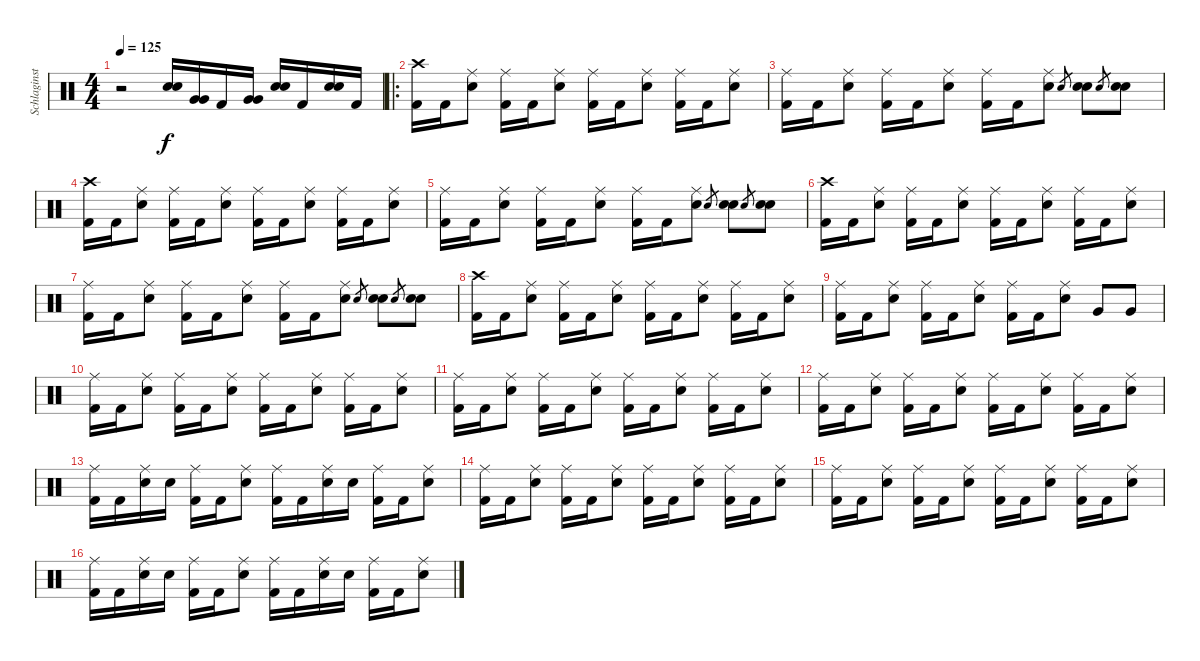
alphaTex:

\track ("Schlaginstrumente - Auswahl" "Schlaginst") {instrument percussion}
\staff {score}
\articulation defaults
\ts (4 4)
\tempo 125
\clef neutral
\ks c
r.2{dy f} ("Snare (hit) 2" "Snare (hit) 2").16 ("Very Low Tom (hit)" "Very Low Tom (hit)").16 "Kick (hit) 2".16 ("Very Low Tom (hit)" "Very Low Tom (hit)").16 ("Snare (hit) 2" "Snare (hit) 2").16 "Kick (hit) 2".16 ("Snare (hit) 2" "Snare (hit) 2").16 "Kick (hit) 2".16 |
\ro
("Crash high (hit)" "Kick (hit) 2").16 "Kick (hit) 2".16 ("Ride (middle)" "Snare (hit) 2").8 ("Ride (middle)" "Kick (hit) 2").16 "Kick (hit) 2".16 ("Ride (middle)" "Snare (hit) 2").8 ("Ride (middle)" "Kick (hit) 2").16 "Kick (hit) 2".16 ("Ride (middle)" "Snare (hit) 2").8 ("Ride (middle)" "Kick (hit) 2").16 "Kick (hit) 2".16 ("Ride (middle)" "Snare (hit) 2").8 |
("Ride (middle)" "Kick (hit) 2").16 "Kick (hit) 2".16 ("Ride (middle)" "Snare (hit) 2").8 ("Ride (middle)" "Kick (hit) 2").16 "Kick (hit) 2".16 ("Ride (middle)" "Snare (hit) 2").8 ("Ride (middle)" "Kick (hit) 2").16 "Kick (hit) 2".16 ("Ride (middle)" "Snare (hit) 2").8 "Snare (hit) 2".8{gr} ("Snare (hit) 2" "Snare (hit) 2").8 "Snare (hit) 2".8{gr} ("Snare (hit) 2" "Snare (hit) 2").8 |
("Crash high (hit)" "Kick (hit) 2").16 "Kick (hit) 2".16 ("Ride (middle)" "Snare (hit) 2").8 ("Ride (middle)" "Kick (hit) 2").16 "Kick (hit) 2".16 ("Ride (middle)" "Snare (hit) 2").8 ("Ride (middle)" "Kick (hit) 2").16 "Kick (hit) 2".16 ("Ride (middle)" "Snare (hit) 2").8 ("Ride (middle)" "Kick (hit) 2").16 "Kick (hit) 2".16 ("Ride (middle)" "Snare (hit) 2").8 |
("Ride (middle)" "Kick (hit) 2").16 "Kick (hit) 2".16 ("Ride (middle)" "Snare (hit) 2").8 ("Ride (middle)" "Kick (hit) 2").16 "Kick (hit) 2".16 ("Ride (middle)" "Snare (hit) 2").8 ("Ride (middle)" "Kick (hit) 2").16 "Kick (hit) 2".16 ("Ride (middle)" "Snare (hit) 2").8 "Snare (hit) 2".8{gr} ("Snare (hit) 2" "Snare (hit) 2").8 "Snare (hit) 2".8{gr} ("Snare (hit) 2" "Snare (hit) 2").8 |
("Crash high (hit)" "Kick (hit) 2").16 "Kick (hit) 2".16 ("Ride (middle)" "Snare (hit) 2").8 ("Ride (middle)" "Kick (hit) 2").16 "Kick (hit) 2".16 ("Ride (middle)" "Snare (hit) 2").8 ("Ride (middle)" "Kick (hit) 2").16 "Kick (hit) 2".16 ("Ride (middle)" "Snare (hit) 2").8 ("Ride (middle)" "Kick (hit) 2").16 "Kick (hit) 2".16 ("Ride (middle)" "Snare (hit) 2").8 |
("Ride (middle)" "Kick (hit) 2").16 "Kick (hit) 2".16 ("Ride (middle)" "Snare (hit) 2").8 ("Ride (middle)" "Kick (hit) 2").16 "Kick (hit) 2".16 ("Ride (middle)" "Snare (hit) 2").8 ("Ride (middle)" "Kick (hit) 2").16 "Kick (hit) 2".16 ("Ride (middle)" "Snare (hit) 2").8 "Snare (hit) 2".8{gr} ("Snare (hit) 2" "Snare (hit) 2").8 "Snare (hit) 2".8{gr} ("Snare (hit) 2" "Snare (hit) 2").8 |
("Crash high (hit)" "Kick (hit) 2").16 "Kick (hit) 2".16 ("Ride (middle)" "Snare (hit) 2").8 ("Ride (middle)" "Kick (hit) 2").16 "Kick (hit) 2".16 ("Ride (middle)" "Snare (hit) 2").8 ("Ride (middle)" "Kick (hit) 2").16 "Kick (hit) 2".16 ("Ride (middle)" "Snare (hit) 2").8 ("Ride (middle)" "Kick (hit) 2").16 "Kick (hit) 2".16 ("Ride (middle)" "Snare (hit) 2").8 |
("Ride (middle)" "Kick (hit) 2").16 "Kick (hit) 2".16 ("Ride (middle)" "Snare (hit) 2").8 ("Ride (middle)" "Kick (hit) 2").16 "Kick (hit) 2".16 ("Ride (middle)" "Snare (hit) 2").8 ("Ride (middle)" "Kick (hit) 2").16 "Kick (hit) 2".16 ("Ride (middle)" "Snare (hit) 2").8 "Very Low Tom (hit)".8 "Very Low Tom (hit)".8 |
("Ride (middle)" "Kick (hit) 2").16 "Kick (hit) 2".16 ("Ride (middle)" "Snare (hit) 2").8 ("Ride (middle)" "Kick (hit) 2").16 "Kick (hit) 2".16 ("Ride (middle)" "Snare (hit) 2").8 ("Ride (middle)" "Kick (hit) 2").16 "Kick (hit) 2".16 ("Ride (middle)" "Snare (hit) 2").8 ("Ride (middle)" "Kick (hit) 2").16 "Kick (hit) 2".16 ("Ride (middle)" "Snare (hit) 2").8 |
("Ride (middle)" "Kick (hit) 2").16 "Kick (hit) 2".16 ("Ride (middle)" "Snare (hit) 2").8 ("Ride (middle)" "Kick (hit) 2").16 "Kick (hit) 2".16 ("Ride (middle)" "Snare (hit) 2").8 ("Ride (middle)" "Kick (hit) 2").16 "Kick (hit) 2".16 ("Ride (middle)" "Snare (hit) 2").8 ("Ride (middle)" "Kick (hit) 2").16 "Kick (hit) 2".16 ("Ride (middle)" "Snare (hit) 2").8 |
("Ride (middle)" "Kick (hit) 2").16 "Kick (hit) 2".16 ("Ride (middle)" "Snare (hit) 2").8 ("Ride (middle)" "Kick (hit) 2").16 "Kick (hit) 2".16 ("Ride (middle)" "Snare (hit) 2").8 ("Ride (middle)" "Kick (hit) 2").16 "Kick (hit) 2".16 ("Ride (middle)" "Snare (hit) 2").8 ("Ride (middle)" "Kick (hit) 2").16 "Kick (hit) 2".16 ("Ride (middle)" "Snare (hit) 2").8 |
("Ride (middle)" "Kick (hit) 2").16 "Kick (hit) 2".16 ("Ride (middle)" "Snare (hit) 2").16 "Snare (hit) 2".16 ("Ride (middle)" "Kick (hit) 2").16 "Kick (hit) 2".16 ("Ride (middle)" "Snare (hit) 2").8 ("Ride (middle)" "Kick (hit) 2").16 "Kick (hit) 2".16 ("Ride (middle)" "Snare (hit) 2").16 "Snare (hit) 2".16 ("Ride (middle)" "Kick (hit) 2").16 "Kick (hit) 2".16 ("Ride (middle)" "Snare (hit) 2").8 |
("Ride (middle)" "Kick (hit) 2").16 "Kick (hit) 2".16 ("Ride (middle)" "Snare (hit) 2").8 ("Ride (middle)" "Kick (hit) 2").16 "Kick (hit) 2".16 ("Ride (middle)" "Snare (hit) 2").8 ("Ride (middle)" "Kick (hit) 2").16 "Kick (hit) 2".16 ("Ride (middle)" "Snare (hit) 2").8 ("Ride (middle)" "Kick (hit) 2").16 "Kick (hit) 2".16 ("Ride (middle)" "Snare (hit) 2").8 |
("Ride (middle)" "Kick (hit) 2").16 "Kick (hit) 2".16 ("Ride (middle)" "Snare (hit) 2").8 ("Ride (middle)" "Kick (hit) 2").16 "Kick (hit) 2".16 ("Ride (middle)" "Snare (hit) 2").8 ("Ride (middle)" "Kick (hit) 2").16 "Kick (hit) 2".16 ("Ride (middle)" "Snare (hit) 2").8 ("Ride (middle)" "Kick (hit) 2").16 "Kick (hit) 2".16 ("Ride (middle)" "Snare (hit) 2").8 |
("Ride (middle)" "Kick (hit) 2").16 "Kick (hit) 2".16 ("Ride (middle)" "Snare (hit) 2").16 "Snare (hit) 2".16 ("Ride (middle)" "Kick (hit) 2").16 "Kick (hit) 2".16 ("Ride (middle)" "Snare (hit) 2").8 ("Ride (middle)" "Kick (hit) 2").16 "Kick (hit) 2".16 ("Ride (middle)" "Snare (hit) 2").16 "Snare (hit) 2".16 ("Ride (middle)" "Kick (hit) 2").16 "Kick (hit) 2".16 ("Ride (middle)" "Snare (hit) 2").8
